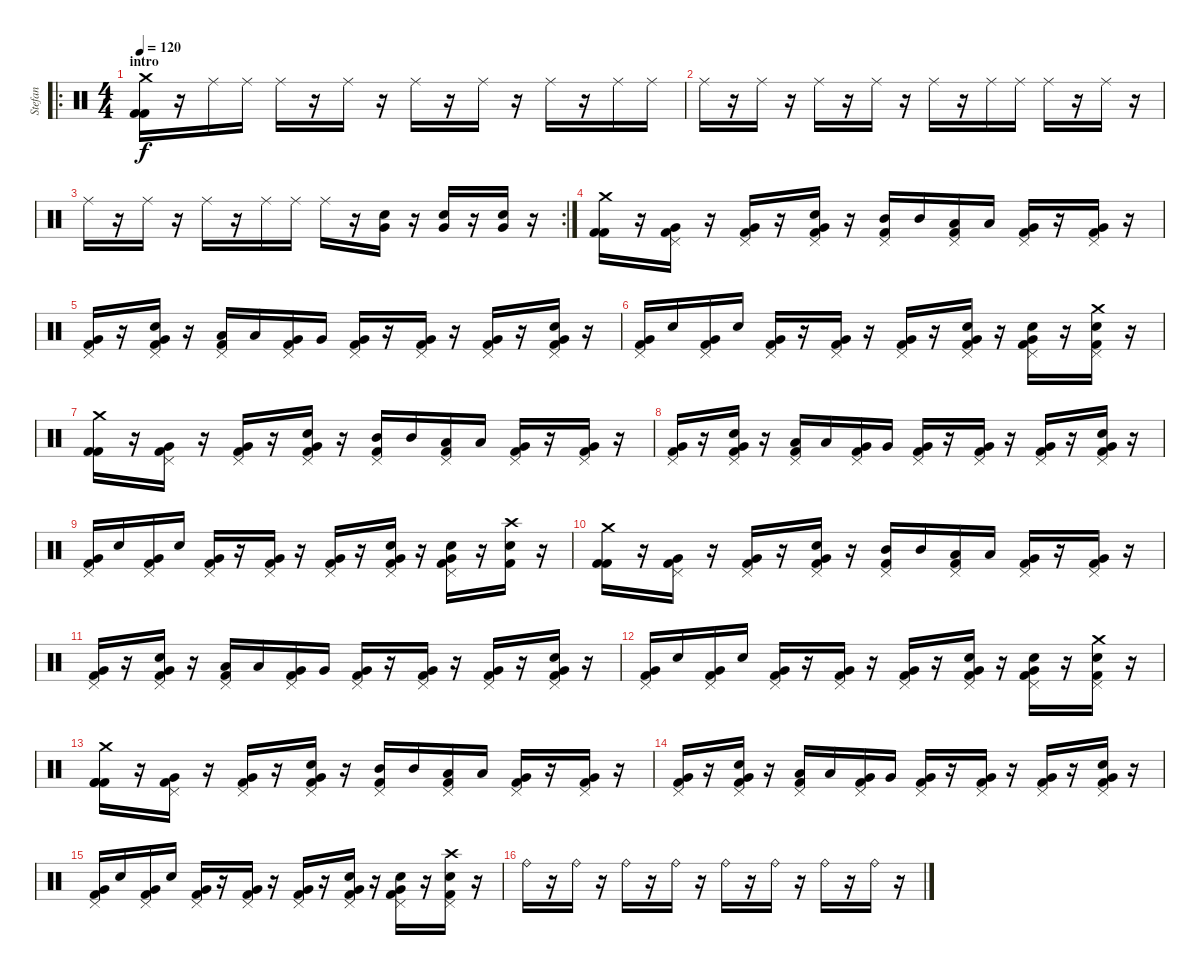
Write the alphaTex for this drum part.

\track ("Stefan" "Stefan") {instrument percussion}
\staff {score}
\articulation defaults
\ro
\ts (4 4)
\section ("" "intro")
\tempo 120
\clef neutral
\ks c
("Crash medium (hit)" "Kick (hit) 2" "Kick (hit) 2").16{dy f} r.16 "Ride (middle)".16 "Ride (middle)".16 "Ride (middle)".16 r.16 "Ride (middle)".16 r.16 "Ride (middle)".16 r.16 "Ride (middle)".16 r.16 "Ride (middle)".16 r.16 "Ride (middle)".16 "Ride (middle)".16 |
"Ride (middle)".16 r.16 "Ride (middle)".16 r.16 "Ride (middle)".16 r.16 "Ride (middle)".16 r.16 "Ride (middle)".16 r.16 "Ride (middle)".16 "Ride (middle)".16 "Ride (middle)".16 r.16 "Ride (middle)".16 r.16 |
\rc 2 "Ride (middle)".16
r.16 "Ride (middle)".16 r.16 "Ride (middle)".16 r.16 "Ride (middle)".16 "Ride (middle)".16 "Ride (middle)".16 r.16 ("Electric Snare (hit)" "Very Low Tom (hit)").16 r.16 ("Electric Snare (hit)" "Very Low Tom (hit)").16 r.16 ("Electric Snare (hit)" "Very Low Tom (hit)").16 r.16 |
("Crash medium (hit)" "Kick (hit) 2" "Kick (hit) 2").16 r.16 ("Pedal Hi-Hat (hit)" "Kick (hit) 2" "Very Low Tom (hit)").16 r.16 ("Pedal Hi-Hat (hit)" "Kick (hit) 2" "Very Low Tom (hit)").16 r.16 ("Pedal Hi-Hat (hit)" "Kick (hit) 2" "Electric Snare (hit)" "Very Low Tom (hit)").16 r.16 ("Pedal Hi-Hat (hit)" "Kick (hit) 2" "Mid Tom (hit)").16 "Mid Tom (hit)".16 ("Pedal Hi-Hat (hit)" "Kick (hit) 2" "Low Tom (hit)").16 "Low Tom (hit)".16 ("Pedal Hi-Hat (hit)" "Kick (hit) 2" "Very Low Tom (hit)").16 r.16 ("Pedal Hi-Hat (hit)" "Kick (hit) 2" "Very Low Tom (hit)").16 r.16 |
("Pedal Hi-Hat (hit)" "Kick (hit) 2" "Very Low Tom (hit)").16 r.16 ("Pedal Hi-Hat (hit)" "Kick (hit) 2" "Electric Snare (hit)" "Very Low Tom (hit)").16 r.16 ("Pedal Hi-Hat (hit)" "Kick (hit) 2" "Low Tom (hit)").16 "Low Tom (hit)".16 ("Pedal Hi-Hat (hit)" "Kick (hit) 2" "Very Low Tom (hit)").16 "Very Low Tom (hit)".16 ("Pedal Hi-Hat (hit)" "Kick (hit) 2" "Very Low Tom (hit)").16 r.16 ("Pedal Hi-Hat (hit)" "Kick (hit) 2" "Very Low Tom (hit)").16 r.16 ("Pedal Hi-Hat (hit)" "Kick (hit) 2" "Very Low Tom (hit)").16 r.16 ("Pedal Hi-Hat (hit)" "Kick (hit) 2" "Electric Snare (hit)" "Very Low Tom (hit)").16 r.16 |
("Pedal Hi-Hat (hit)" "Kick (hit) 2" "Very Low Tom (hit)").16 "Electric Snare (hit)".16 ("Pedal Hi-Hat (hit)" "Kick (hit) 2" "Very Low Tom (hit)").16 "Electric Snare (hit)".16 ("Pedal Hi-Hat (hit)" "Kick (hit) 2" "Very Low Tom (hit)").16 r.16 ("Pedal Hi-Hat (hit)" "Kick (hit) 2" "Very Low Tom (hit)").16 r.16 ("Pedal Hi-Hat (hit)" "Kick (hit) 2" "Very Low Tom (hit)").16 r.16 ("Pedal Hi-Hat (hit)" "Kick (hit) 2" "Electric Snare (hit)" "Very Low Tom (hit)").16 r.16 ("Pedal Hi-Hat (hit)" "Kick (hit) 2" "Electric Snare (hit)" "Very Low Tom (hit)").16 r.16 ("Pedal Hi-Hat (hit)" "Kick (hit) 2" "Crash medium (hit)" "Electric Snare (hit)").16 r.16 |
("Crash medium (hit)" "Kick (hit) 2" "Kick (hit) 2").16 r.16 ("Pedal Hi-Hat (hit)" "Kick (hit) 2" "Very Low Tom (hit)").16 r.16 ("Pedal Hi-Hat (hit)" "Kick (hit) 2" "Very Low Tom (hit)").16 r.16 ("Pedal Hi-Hat (hit)" "Kick (hit) 2" "Electric Snare (hit)" "Very Low Tom (hit)").16 r.16 ("Pedal Hi-Hat (hit)" "Kick (hit) 2" "Mid Tom (hit)").16 "Mid Tom (hit)".16 ("Pedal Hi-Hat (hit)" "Kick (hit) 2" "Low Tom (hit)").16 "Low Tom (hit)".16 ("Pedal Hi-Hat (hit)" "Kick (hit) 2" "Very Low Tom (hit)").16 r.16 ("Pedal Hi-Hat (hit)" "Kick (hit) 2" "Very Low Tom (hit)").16 r.16 |
("Pedal Hi-Hat (hit)" "Kick (hit) 2" "Very Low Tom (hit)").16 r.16 ("Pedal Hi-Hat (hit)" "Kick (hit) 2" "Electric Snare (hit)" "Very Low Tom (hit)").16 r.16 ("Pedal Hi-Hat (hit)" "Kick (hit) 2" "Low Tom (hit)").16 "Low Tom (hit)".16 ("Pedal Hi-Hat (hit)" "Kick (hit) 2" "Very Low Tom (hit)").16 "Very Low Tom (hit)".16 ("Pedal Hi-Hat (hit)" "Kick (hit) 2" "Very Low Tom (hit)").16 r.16 ("Pedal Hi-Hat (hit)" "Kick (hit) 2" "Very Low Tom (hit)").16 r.16 ("Pedal Hi-Hat (hit)" "Kick (hit) 2" "Very Low Tom (hit)").16 r.16 ("Pedal Hi-Hat (hit)" "Kick (hit) 2" "Electric Snare (hit)" "Very Low Tom (hit)").16 r.16 |
("Pedal Hi-Hat (hit)" "Kick (hit) 2" "Very Low Tom (hit)").16 "Electric Snare (hit)".16 ("Pedal Hi-Hat (hit)" "Kick (hit) 2" "Very Low Tom (hit)").16 "Electric Snare (hit)".16 ("Pedal Hi-Hat (hit)" "Kick (hit) 2" "Very Low Tom (hit)").16 r.16 ("Pedal Hi-Hat (hit)" "Kick (hit) 2" "Very Low Tom (hit)").16 r.16 ("Pedal Hi-Hat (hit)" "Kick (hit) 2" "Very Low Tom (hit)").16 r.16 ("Pedal Hi-Hat (hit)" "Kick (hit) 2" "Electric Snare (hit)" "Very Low Tom (hit)").16 r.16 ("Pedal Hi-Hat (hit)" "Kick (hit) 2" "Electric Snare (hit)" "Very Low Tom (hit)").16 r.16 ("Kick (hit) 2" "Crash high (hit)" "Electric Snare (hit)").16 r.16 |
("Crash medium (hit)" "Kick (hit) 2" "Kick (hit) 2").16 r.16 ("Pedal Hi-Hat (hit)" "Kick (hit) 2" "Very Low Tom (hit)").16 r.16 ("Pedal Hi-Hat (hit)" "Kick (hit) 2" "Very Low Tom (hit)").16 r.16 ("Pedal Hi-Hat (hit)" "Kick (hit) 2" "Electric Snare (hit)" "Very Low Tom (hit)").16 r.16 ("Pedal Hi-Hat (hit)" "Kick (hit) 2" "Mid Tom (hit)").16 "Mid Tom (hit)".16 ("Pedal Hi-Hat (hit)" "Kick (hit) 2" "Low Tom (hit)").16 "Low Tom (hit)".16 ("Pedal Hi-Hat (hit)" "Kick (hit) 2" "Very Low Tom (hit)").16 r.16 ("Pedal Hi-Hat (hit)" "Kick (hit) 2" "Very Low Tom (hit)").16 r.16 |
("Pedal Hi-Hat (hit)" "Kick (hit) 2" "Very Low Tom (hit)").16 r.16 ("Pedal Hi-Hat (hit)" "Kick (hit) 2" "Electric Snare (hit)" "Very Low Tom (hit)").16 r.16 ("Pedal Hi-Hat (hit)" "Kick (hit) 2" "Low Tom (hit)").16 "Low Tom (hit)".16 ("Pedal Hi-Hat (hit)" "Kick (hit) 2" "Very Low Tom (hit)").16 "Very Low Tom (hit)".16 ("Pedal Hi-Hat (hit)" "Kick (hit) 2" "Very Low Tom (hit)").16 r.16 ("Pedal Hi-Hat (hit)" "Kick (hit) 2" "Very Low Tom (hit)").16 r.16 ("Pedal Hi-Hat (hit)" "Kick (hit) 2" "Very Low Tom (hit)").16 r.16 ("Pedal Hi-Hat (hit)" "Kick (hit) 2" "Electric Snare (hit)" "Very Low Tom (hit)").16 r.16 |
("Pedal Hi-Hat (hit)" "Kick (hit) 2" "Very Low Tom (hit)").16 "Electric Snare (hit)".16 ("Pedal Hi-Hat (hit)" "Kick (hit) 2" "Very Low Tom (hit)").16 "Electric Snare (hit)".16 ("Pedal Hi-Hat (hit)" "Kick (hit) 2" "Very Low Tom (hit)").16 r.16 ("Pedal Hi-Hat (hit)" "Kick (hit) 2" "Very Low Tom (hit)").16 r.16 ("Pedal Hi-Hat (hit)" "Kick (hit) 2" "Very Low Tom (hit)").16 r.16 ("Pedal Hi-Hat (hit)" "Kick (hit) 2" "Electric Snare (hit)" "Very Low Tom (hit)").16 r.16 ("Pedal Hi-Hat (hit)" "Kick (hit) 2" "Electric Snare (hit)" "Very Low Tom (hit)").16 r.16 ("Pedal Hi-Hat (hit)" "Kick (hit) 2" "Crash medium (hit)" "Electric Snare (hit)").16 r.16 |
("Kick (hit) 2" "Crash medium (hit)" "Kick (hit) 2" "Kick (hit) 2").16 r.16 ("Pedal Hi-Hat (hit)" "Kick (hit) 2" "Very Low Tom (hit)").16 r.16 ("Pedal Hi-Hat (hit)" "Kick (hit) 2" "Very Low Tom (hit)").16 r.16 ("Pedal Hi-Hat (hit)" "Kick (hit) 2" "Electric Snare (hit)" "Very Low Tom (hit)").16 r.16 ("Pedal Hi-Hat (hit)" "Kick (hit) 2" "Mid Tom (hit)").16 "Mid Tom (hit)".16 ("Pedal Hi-Hat (hit)" "Kick (hit) 2" "Low Tom (hit)").16 "Low Tom (hit)".16 ("Pedal Hi-Hat (hit)" "Kick (hit) 2" "Very Low Tom (hit)").16 r.16 ("Pedal Hi-Hat (hit)" "Kick (hit) 2" "Very Low Tom (hit)").16 r.16 |
("Pedal Hi-Hat (hit)" "Kick (hit) 2" "Very Low Tom (hit)").16 r.16 ("Pedal Hi-Hat (hit)" "Kick (hit) 2" "Electric Snare (hit)" "Very Low Tom (hit)").16 r.16 ("Pedal Hi-Hat (hit)" "Kick (hit) 2" "Low Tom (hit)").16 "Low Tom (hit)".16 ("Pedal Hi-Hat (hit)" "Kick (hit) 2" "Very Low Tom (hit)").16 "Very Low Tom (hit)".16 ("Pedal Hi-Hat (hit)" "Kick (hit) 2" "Very Low Tom (hit)").16 r.16 ("Pedal Hi-Hat (hit)" "Kick (hit) 2" "Very Low Tom (hit)").16 r.16 ("Pedal Hi-Hat (hit)" "Kick (hit) 2" "Very Low Tom (hit)").16 r.16 ("Pedal Hi-Hat (hit)" "Kick (hit) 2" "Electric Snare (hit)" "Very Low Tom (hit)").16 r.16 |
("Pedal Hi-Hat (hit)" "Kick (hit) 2" "Very Low Tom (hit)").16 "Electric Snare (hit)".16 ("Pedal Hi-Hat (hit)" "Kick (hit) 2" "Very Low Tom (hit)").16 "Electric Snare (hit)".16 ("Pedal Hi-Hat (hit)" "Kick (hit) 2" "Very Low Tom (hit)").16 r.16 ("Pedal Hi-Hat (hit)" "Kick (hit) 2" "Very Low Tom (hit)").16 r.16 ("Pedal Hi-Hat (hit)" "Kick (hit) 2" "Very Low Tom (hit)").16 r.16 ("Pedal Hi-Hat (hit)" "Kick (hit) 2" "Electric Snare (hit)" "Very Low Tom (hit)").16 r.16 ("Pedal Hi-Hat (hit)" "Kick (hit) 2" "Electric Snare (hit)" "Very Low Tom (hit)").16 r.16 ("Pedal Hi-Hat (hit)" "Kick (hit) 2" "Crash high (hit)" "Electric Snare (hit)").16 r.16 |
"Ride (bell)".16 r.16 "Ride (bell)".16 r.16 "Ride (bell)".16 r.16 "Ride (bell)".16 r.16 "Ride (bell)".16 r.16 "Ride (bell)".16 r.16 "Ride (bell)".16 r.16 "Ride (bell)".16 r.16
